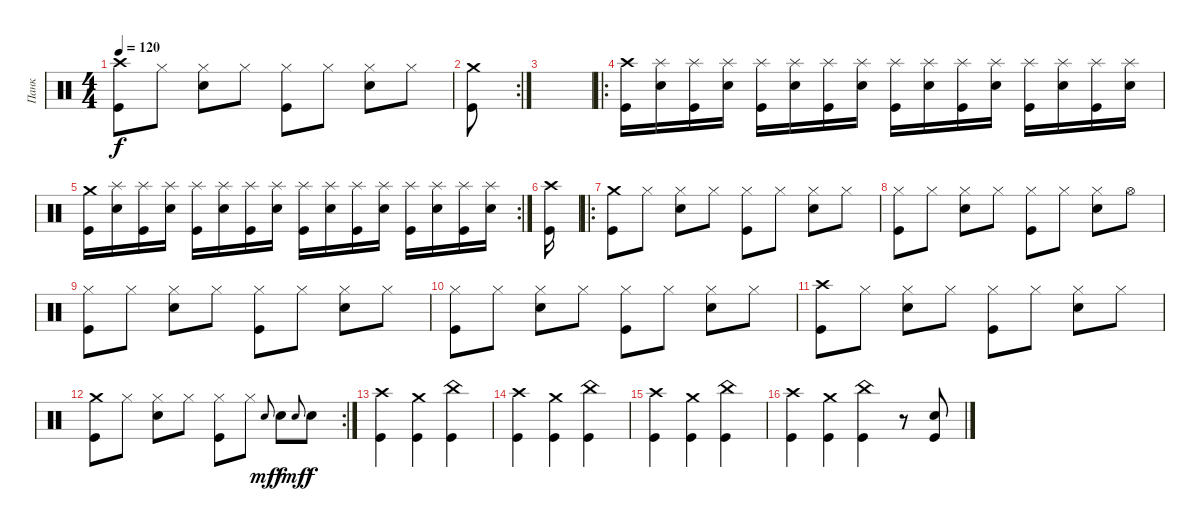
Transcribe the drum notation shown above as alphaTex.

\track ("Панк" "Панк") {instrument percussion}
\staff {score}
\articulation defaults
\ts (4 4)
\tempo 120
\clef neutral
\ks c
("Crash high (hit)" "Kick (hit)").8{dy f} "Hi-Hat (closed)".8 ("Hi-Hat (closed)" "Electric Snare (hit)").8 "Hi-Hat (closed)".8 ("Hi-Hat (closed)" "Kick (hit)").8 "Hi-Hat (closed)".8 ("Hi-Hat (closed)" "Electric Snare (hit)").8 "Hi-Hat (closed)".8 |
\rc 2
("Crash medium (hit)" "Kick (hit)").8 |
|
\ro
("Crash high (hit)" "Kick (hit)").16 ("Splash (hit)" "Electric Snare (hit)").16 ("Splash (hit)" "Kick (hit)").16 ("Splash (hit)" "Electric Snare (hit)").16 ("Splash (hit)" "Kick (hit)").16 ("Splash (hit)" "Electric Snare (hit)").16 ("Splash (hit)" "Kick (hit)").16 ("Splash (hit)" "Electric Snare (hit)").16 ("Splash (hit)" "Kick (hit)").16 ("Splash (hit)" "Electric Snare (hit)").16 ("Splash (hit)" "Kick (hit)").16 ("Splash (hit)" "Electric Snare (hit)").16 ("Splash (hit)" "Kick (hit)").16 ("Splash (hit)" "Electric Snare (hit)").16 ("Splash (hit)" "Kick (hit)").16 ("Splash (hit)" "Electric Snare (hit)").16 |
\rc 2
("Crash medium (hit)" "Kick (hit)").16 ("Splash (hit)" "Electric Snare (hit)").16 ("Splash (hit)" "Kick (hit)").16 ("Splash (hit)" "Electric Snare (hit)").16 ("Splash (hit)" "Kick (hit)").16 ("Splash (hit)" "Electric Snare (hit)").16 ("Splash (hit)" "Kick (hit)").16 ("Splash (hit)" "Electric Snare (hit)").16 ("Splash (hit)" "Kick (hit)").16 ("Splash (hit)" "Electric Snare (hit)").16 ("Splash (hit)" "Kick (hit)").16 ("Splash (hit)" "Electric Snare (hit)").16 ("Splash (hit)" "Kick (hit)").16 ("Splash (hit)" "Electric Snare (hit)").16 ("Splash (hit)" "Kick (hit)").16 ("Splash (hit)" "Electric Snare (hit)").16 |
("Crash high (hit)" "Kick (hit)").16 |
\ro
("Crash medium (hit)" "Kick (hit)").8 "Hi-Hat (closed)".8 ("Hi-Hat (closed)" "Electric Snare (hit)").8 "Hi-Hat (closed)".8 ("Hi-Hat (closed)" "Kick (hit)").8 "Hi-Hat (closed)".8 ("Hi-Hat (closed)" "Electric Snare (hit)").8 "Hi-Hat (closed)".8 |
("Hi-Hat (closed)" "Kick (hit)").8 "Hi-Hat (closed)".8 ("Hi-Hat (closed)" "Electric Snare (hit)").8 "Hi-Hat (closed)".8 ("Hi-Hat (closed)" "Kick (hit)").8 "Hi-Hat (closed)".8 ("Hi-Hat (closed)" "Electric Snare (hit)").8 "Hi-Hat (open)".8 |
("Hi-Hat (closed)" "Kick (hit)").8 "Hi-Hat (closed)".8 ("Hi-Hat (closed)" "Electric Snare (hit)").8 "Hi-Hat (closed)".8 ("Hi-Hat (closed)" "Kick (hit)").8 "Hi-Hat (closed)".8 ("Hi-Hat (closed)" "Electric Snare (hit)").8 "Hi-Hat (closed)".8 |
("Hi-Hat (closed)" "Kick (hit)").8 "Hi-Hat (closed)".8 ("Hi-Hat (closed)" "Electric Snare (hit)").8 "Hi-Hat (closed)".8 ("Hi-Hat (closed)" "Kick (hit)").8 "Hi-Hat (closed)".8 ("Hi-Hat (closed)" "Electric Snare (hit)").8 "Hi-Hat (closed)".8 |
("Crash high (hit)" "Kick (hit)").8 "Hi-Hat (closed)".8 ("Hi-Hat (closed)" "Electric Snare (hit)").8 "Hi-Hat (closed)".8 ("Hi-Hat (closed)" "Kick (hit)").8 "Hi-Hat (closed)".8 ("Hi-Hat (closed)" "Electric Snare (hit)").8 "Hi-Hat (closed)".8 |
\rc 2
("Crash medium (hit)" "Kick (hit)").8 "Hi-Hat (closed)".8 ("Hi-Hat (closed)" "Electric Snare (hit)").8 "Hi-Hat (closed)".8 ("Hi-Hat (closed)" "Kick (hit)").8 "Hi-Hat (closed)".8 "Electric Snare (hit)"{h}.8{gr onbeat dy mf} "Electric Snare (hit)".8{dy f} "Electric Snare (hit)".8{gr onbeat dy mf} "Electric Snare (hit)".8{dy f} |
("Crash high (hit)" "Kick (hit)").4 ("Crash medium (hit)" "Kick (hit)").4 ("China (hit)" "Kick (hit)").4 |
("Crash high (hit)" "Kick (hit)").4 ("Crash medium (hit)" "Kick (hit)").4 ("China (hit)" "Kick (hit)").4 |
("Crash high (hit)" "Kick (hit)").4 ("Crash medium (hit)" "Kick (hit)").4 ("China (hit)" "Kick (hit)").4 |
("Crash high (hit)" "Kick (hit)").4 ("Crash medium (hit)" "Kick (hit)").4 ("China (hit)" "Kick (hit)").4 r.8 ("Electric Snare (hit)" "Kick (hit)").8
